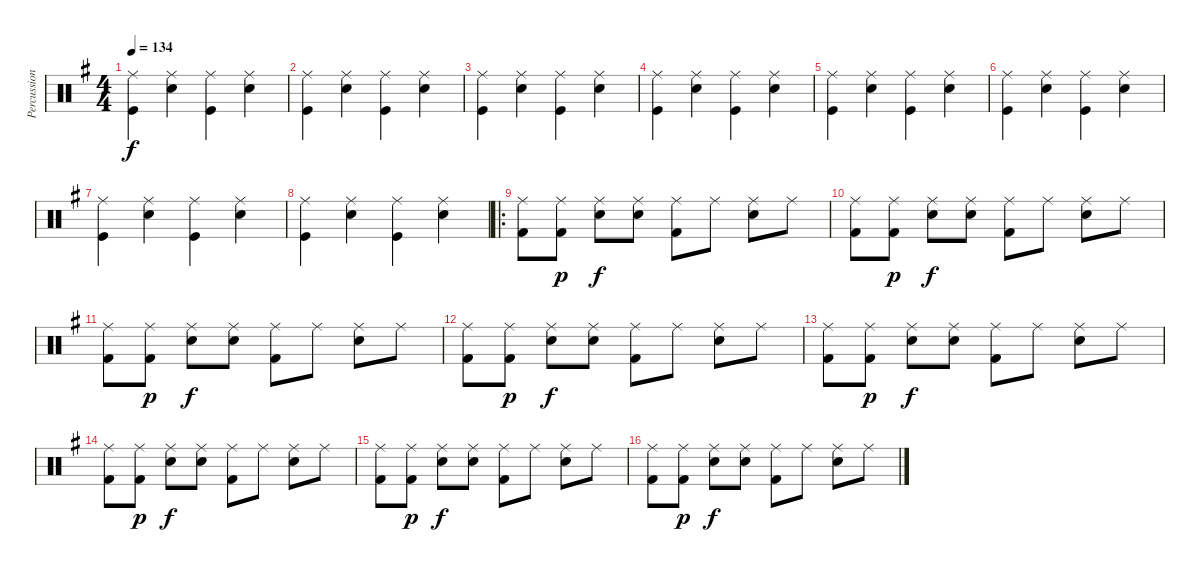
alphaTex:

\track ("Percussions" "Percussion") {instrument percussion}
\staff {score}
\articulation defaults
\ts (4 4)
\tempo 134
\clef neutral
\ks g
("Ride (middle)" "Kick (hit)").4{dy f} ("Ride (middle)" "Snare (hit) 2").4 ("Ride (middle)" "Kick (hit)").4 ("Ride (middle)" "Snare (hit) 2").4 |
("Ride (middle)" "Kick (hit)").4 ("Ride (middle)" "Snare (hit) 2").4 ("Ride (middle)" "Kick (hit)").4 ("Ride (middle)" "Snare (hit) 2").4 |
("Ride (middle)" "Kick (hit)").4 ("Ride (middle)" "Snare (hit) 2").4 ("Ride (middle)" "Kick (hit)").4 ("Ride (middle)" "Snare (hit) 2").4 |
("Ride (middle)" "Kick (hit)").4 ("Ride (middle)" "Snare (hit) 2").4 ("Ride (middle)" "Kick (hit)").4 ("Ride (middle)" "Snare (hit) 2").4 |
("Ride (middle)" "Kick (hit)").4 ("Ride (middle)" "Snare (hit) 2").4 ("Ride (middle)" "Kick (hit)").4 ("Ride (middle)" "Snare (hit) 2").4 |
("Ride (middle)" "Kick (hit)").4 ("Ride (middle)" "Snare (hit) 2").4 ("Ride (middle)" "Kick (hit)").4 ("Ride (middle)" "Snare (hit) 2").4 |
("Ride (middle)" "Kick (hit)").4 ("Ride (middle)" "Snare (hit) 2").4 ("Ride (middle)" "Kick (hit)").4 ("Ride (middle)" "Snare (hit) 2").4 |
("Ride (middle)" "Kick (hit)").4 ("Ride (middle)" "Snare (hit) 2").4 ("Ride (middle)" "Kick (hit)").4 ("Ride (middle)" "Snare (hit) 2").4 |
\ro
("Ride (middle)" "Kick (hit) 2").8 ("Ride (middle)" "Kick (hit) 2").8{dy p} ("Ride (middle)" "Snare (hit) 2").8{dy f} ("Ride (middle)" "Snare (hit) 2").8 ("Ride (middle)" "Kick (hit) 2").8 "Ride (middle)".8 ("Ride (middle)" "Snare (hit) 2").8 "Ride (middle)".8 |
("Ride (middle)" "Kick (hit) 2").8 ("Ride (middle)" "Kick (hit) 2").8{dy p} ("Ride (middle)" "Snare (hit) 2").8{dy f} ("Ride (middle)" "Snare (hit) 2").8 ("Ride (middle)" "Kick (hit) 2").8 "Ride (middle)".8 ("Ride (middle)" "Snare (hit) 2").8 "Ride (middle)".8 |
("Ride (middle)" "Kick (hit) 2").8 ("Ride (middle)" "Kick (hit) 2").8{dy p} ("Ride (middle)" "Snare (hit) 2").8{dy f} ("Ride (middle)" "Snare (hit) 2").8 ("Ride (middle)" "Kick (hit) 2").8 "Ride (middle)".8 ("Ride (middle)" "Snare (hit) 2").8 "Ride (middle)".8 |
("Ride (middle)" "Kick (hit) 2").8 ("Ride (middle)" "Kick (hit) 2").8{dy p} ("Ride (middle)" "Snare (hit) 2").8{dy f} ("Ride (middle)" "Snare (hit) 2").8 ("Ride (middle)" "Kick (hit) 2").8 "Ride (middle)".8 ("Ride (middle)" "Snare (hit) 2").8 "Ride (middle)".8 |
("Ride (middle)" "Kick (hit) 2").8 ("Ride (middle)" "Kick (hit) 2").8{dy p} ("Ride (middle)" "Snare (hit) 2").8{dy f} ("Ride (middle)" "Snare (hit) 2").8 ("Ride (middle)" "Kick (hit) 2").8 "Ride (middle)".8 ("Ride (middle)" "Snare (hit) 2").8 "Ride (middle)".8 |
("Ride (middle)" "Kick (hit) 2").8 ("Ride (middle)" "Kick (hit) 2").8{dy p} ("Ride (middle)" "Snare (hit) 2").8{dy f} ("Ride (middle)" "Snare (hit) 2").8 ("Ride (middle)" "Kick (hit) 2").8 "Ride (middle)".8 ("Ride (middle)" "Snare (hit) 2").8 "Ride (middle)".8 |
("Ride (middle)" "Kick (hit) 2").8 ("Ride (middle)" "Kick (hit) 2").8{dy p} ("Ride (middle)" "Snare (hit) 2").8{dy f} ("Ride (middle)" "Snare (hit) 2").8 ("Ride (middle)" "Kick (hit) 2").8 "Ride (middle)".8 ("Ride (middle)" "Snare (hit) 2").8 "Ride (middle)".8 |
("Ride (middle)" "Kick (hit) 2").8 ("Ride (middle)" "Kick (hit) 2").8{dy p} ("Ride (middle)" "Snare (hit) 2").8{dy f} ("Ride (middle)" "Snare (hit) 2").8 ("Ride (middle)" "Kick (hit) 2").8 "Ride (middle)".8 ("Ride (middle)" "Snare (hit) 2").8 "Ride (middle)".8
